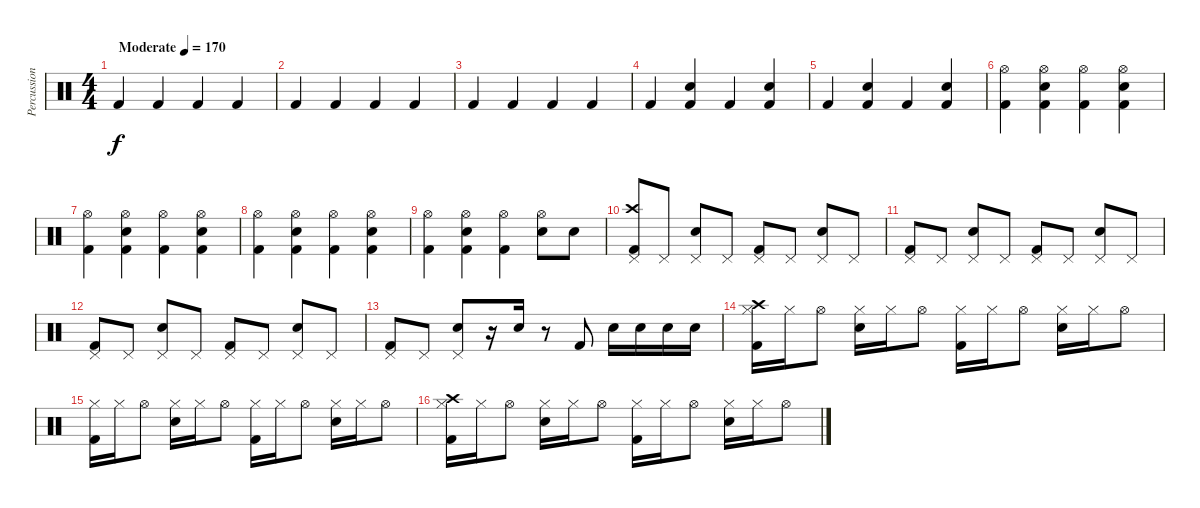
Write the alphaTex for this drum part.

\track ("Percussion" "Percussion") {instrument percussion}
\staff {score}
\articulation defaults
\ts (4 4)
\tempo (170 "Moderate")
\clef neutral
\ks c "Kick (hit) 2".4{dy f} "Kick (hit) 2".4 "Kick (hit) 2".4 "Kick (hit) 2".4
|
"Kick (hit) 2".4 "Kick (hit) 2".4 "Kick (hit) 2".4 "Kick (hit) 2".4 |
"Kick (hit) 2".4 "Kick (hit) 2".4 "Kick (hit) 2".4 "Kick (hit) 2".4 |
"Kick (hit) 2".4 ("Kick (hit) 2" "Snare (hit) 2").4 "Kick (hit) 2".4 ("Kick (hit) 2" "Snare (hit) 2").4 |
"Kick (hit) 2".4 ("Kick (hit) 2" "Snare (hit) 2").4 "Kick (hit) 2".4 ("Kick (hit) 2" "Snare (hit) 2").4 |
("Kick (hit) 2" "Hi-Hat (open)").4 ("Kick (hit) 2" "Snare (hit) 2" "Hi-Hat (open)").4 ("Kick (hit) 2" "Hi-Hat (open)").4 ("Kick (hit) 2" "Snare (hit) 2" "Hi-Hat (open)").4 |
("Kick (hit) 2" "Hi-Hat (open)").4 ("Kick (hit) 2" "Snare (hit) 2" "Hi-Hat (open)").4 ("Kick (hit) 2" "Hi-Hat (open)").4 ("Kick (hit) 2" "Snare (hit) 2" "Hi-Hat (open)").4 |
("Kick (hit) 2" "Hi-Hat (open)").4 ("Kick (hit) 2" "Snare (hit) 2" "Hi-Hat (open)").4 ("Kick (hit) 2" "Hi-Hat (open)").4 ("Kick (hit) 2" "Snare (hit) 2" "Hi-Hat (open)").4 |
("Kick (hit) 2" "Hi-Hat (open)").4 ("Kick (hit) 2" "Snare (hit) 2" "Hi-Hat (open)").4 ("Kick (hit) 2" "Hi-Hat (open)").4 ("Snare (hit) 2" "Hi-Hat (open)").8 "Snare (hit) 2".8 |
("Crash high (hit)" "Pedal Hi-Hat (hit)" "Kick (hit) 2").8 "Pedal Hi-Hat (hit)".8 ("Pedal Hi-Hat (hit)" "Snare (hit) 2").8 "Pedal Hi-Hat (hit)".8 ("Pedal Hi-Hat (hit)" "Kick (hit) 2").8 "Pedal Hi-Hat (hit)".8 ("Pedal Hi-Hat (hit)" "Snare (hit) 2").8 "Pedal Hi-Hat (hit)".8 |
("Pedal Hi-Hat (hit)" "Kick (hit) 2").8 "Pedal Hi-Hat (hit)".8 ("Pedal Hi-Hat (hit)" "Snare (hit) 2").8 "Pedal Hi-Hat (hit)".8 ("Pedal Hi-Hat (hit)" "Kick (hit) 2").8 "Pedal Hi-Hat (hit)".8 ("Pedal Hi-Hat (hit)" "Snare (hit) 2").8 "Pedal Hi-Hat (hit)".8 |
("Pedal Hi-Hat (hit)" "Kick (hit) 2").8 "Pedal Hi-Hat (hit)".8 ("Pedal Hi-Hat (hit)" "Snare (hit) 2").8 "Pedal Hi-Hat (hit)".8 ("Pedal Hi-Hat (hit)" "Kick (hit) 2").8 "Pedal Hi-Hat (hit)".8 ("Pedal Hi-Hat (hit)" "Snare (hit) 2").8 "Pedal Hi-Hat (hit)".8 |
("Pedal Hi-Hat (hit)" "Kick (hit) 2").8 "Pedal Hi-Hat (hit)".8 ("Pedal Hi-Hat (hit)" "Snare (hit) 2").8 r.16 "Snare (hit) 2".16 r.8 "Kick (hit) 2".8 "Snare (hit) 2".16 "Snare (hit) 2".16 "Snare (hit) 2".16 "Snare (hit) 2".16 |
("Hi-Hat (closed)" "Kick (hit) 2" "Crash high (hit)").16 "Hi-Hat (closed)".16 "Hi-Hat (open)".8 ("Hi-Hat (closed)" "Snare (hit) 2").16 "Hi-Hat (closed)".16 "Hi-Hat (open)".8 ("Hi-Hat (closed)" "Kick (hit) 2").16 "Hi-Hat (closed)".16 "Hi-Hat (open)".8 ("Hi-Hat (closed)" "Snare (hit) 2").16 "Hi-Hat (closed)".16 "Hi-Hat (open)".8 |
("Hi-Hat (closed)" "Kick (hit) 2").16 "Hi-Hat (closed)".16 "Hi-Hat (open)".8 ("Hi-Hat (closed)" "Snare (hit) 2").16 "Hi-Hat (closed)".16 "Hi-Hat (open)".8 ("Hi-Hat (closed)" "Kick (hit) 2").16 "Hi-Hat (closed)".16 "Hi-Hat (open)".8 ("Hi-Hat (closed)" "Snare (hit) 2").16 "Hi-Hat (closed)".16 "Hi-Hat (open)".8 |
("Hi-Hat (closed)" "Kick (hit) 2" "Crash high (hit)").16 "Hi-Hat (closed)".16 "Hi-Hat (open)".8 ("Hi-Hat (closed)" "Snare (hit) 2").16 "Hi-Hat (closed)".16 "Hi-Hat (open)".8 ("Hi-Hat (closed)" "Kick (hit) 2").16 "Hi-Hat (closed)".16 "Hi-Hat (open)".8 ("Hi-Hat (closed)" "Snare (hit) 2").16 "Hi-Hat (closed)".16 "Hi-Hat (open)".8
